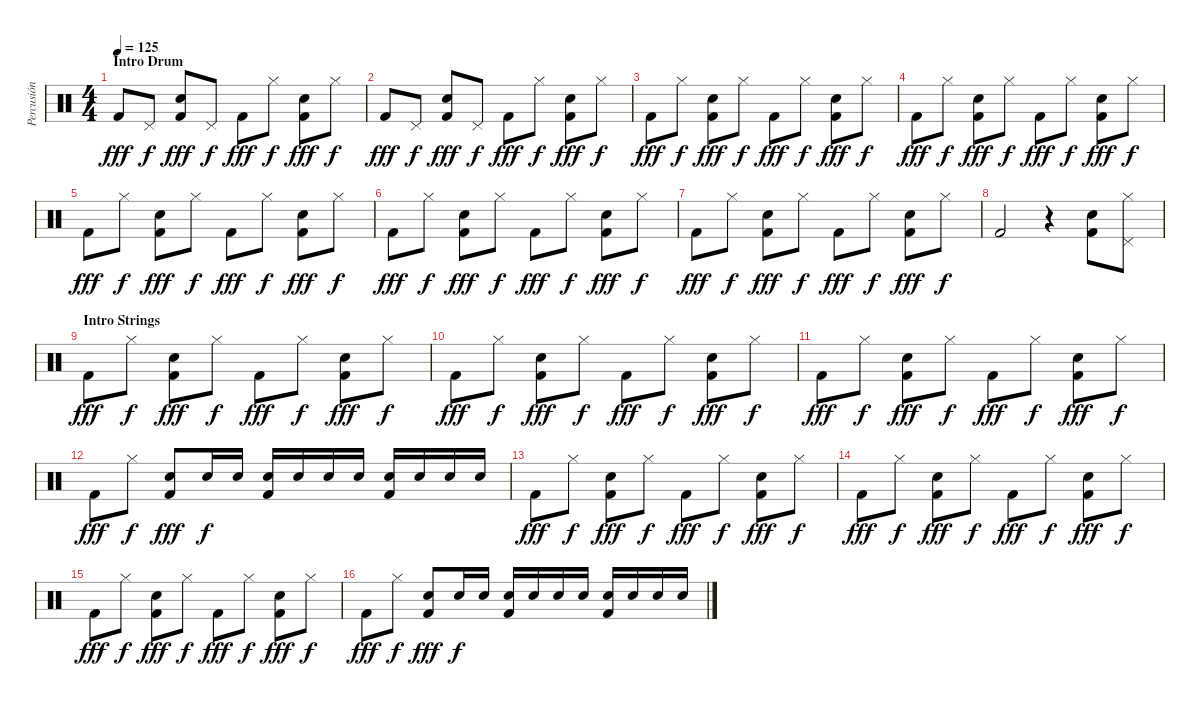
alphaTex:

\track ("Percusión" "Percusión") {instrument percussion}
\staff {score}
\articulation defaults
\ts (4 4)
\section ("" "Intro Drum")
\tempo 125
\clef neutral
\ks c "Kick (hit) 2".8{dy fff} "Pedal Hi-Hat (hit)".8{dy f}
("Electric Snare (hit)" "Kick (hit) 2").8{dy fff} "Pedal Hi-Hat (hit)".8{dy f} "Kick (hit) 2".8{dy fff} "Hi-Hat (closed)".8{dy f} ("Electric Snare (hit)" "Kick (hit) 2").8{dy fff} "Hi-Hat (closed)".8{dy f} |
"Kick (hit) 2".8{dy fff} "Pedal Hi-Hat (hit)".8{dy f} ("Electric Snare (hit)" "Kick (hit) 2").8{dy fff} "Pedal Hi-Hat (hit)".8{dy f} "Kick (hit) 2".8{dy fff} "Hi-Hat (closed)".8{dy f} ("Electric Snare (hit)" "Kick (hit) 2").8{dy fff} "Hi-Hat (closed)".8{dy f} |
"Kick (hit) 2".8{dy fff} "Hi-Hat (closed)".8{dy f} ("Electric Snare (hit)" "Kick (hit) 2").8{dy fff} "Hi-Hat (closed)".8{dy f} "Kick (hit) 2".8{dy fff} "Hi-Hat (closed)".8{dy f} ("Electric Snare (hit)" "Kick (hit) 2").8{dy fff} "Hi-Hat (closed)".8{dy f} |
"Kick (hit) 2".8{dy fff} "Hi-Hat (closed)".8{dy f} ("Electric Snare (hit)" "Kick (hit) 2").8{dy fff} "Hi-Hat (closed)".8{dy f} "Kick (hit) 2".8{dy fff} "Hi-Hat (closed)".8{dy f} ("Electric Snare (hit)" "Kick (hit) 2").8{dy fff} "Hi-Hat (closed)".8{dy f} |
"Kick (hit) 2".8{dy fff} "Hi-Hat (closed)".8{dy f} ("Electric Snare (hit)" "Kick (hit) 2").8{dy fff} "Hi-Hat (closed)".8{dy f} "Kick (hit) 2".8{dy fff} "Hi-Hat (closed)".8{dy f} ("Electric Snare (hit)" "Kick (hit) 2").8{dy fff} "Hi-Hat (closed)".8{dy f} |
"Kick (hit) 2".8{dy fff} "Hi-Hat (closed)".8{dy f} ("Electric Snare (hit)" "Kick (hit) 2").8{dy fff} "Hi-Hat (closed)".8{dy f} "Kick (hit) 2".8{dy fff} "Hi-Hat (closed)".8{dy f} ("Electric Snare (hit)" "Kick (hit) 2").8{dy fff} "Hi-Hat (closed)".8{dy f} |
"Kick (hit) 2".8{dy fff} "Hi-Hat (closed)".8{dy f} ("Electric Snare (hit)" "Kick (hit) 2").8{dy fff} "Hi-Hat (closed)".8{dy f} "Kick (hit) 2".8{dy fff} "Hi-Hat (closed)".8{dy f} ("Electric Snare (hit)" "Kick (hit) 2").8{dy fff} "Hi-Hat (closed)".8{dy f} |
"Kick (hit) 2".2 r.4 ("Electric Snare (hit)" "Kick (hit) 2").8 ("Pedal Hi-Hat (hit)" "Hi-Hat (closed)").8 |
\section ("" "Intro Strings")
"Kick (hit) 2".8{dy fff} "Hi-Hat (closed)".8{dy f} ("Electric Snare (hit)" "Kick (hit) 2").8{dy fff} "Hi-Hat (closed)".8{dy f} "Kick (hit) 2".8{dy fff} "Hi-Hat (closed)".8{dy f} ("Electric Snare (hit)" "Kick (hit) 2").8{dy fff} "Hi-Hat (closed)".8{dy f} |
"Kick (hit) 2".8{dy fff} "Hi-Hat (closed)".8{dy f} ("Electric Snare (hit)" "Kick (hit) 2").8{dy fff} "Hi-Hat (closed)".8{dy f} "Kick (hit) 2".8{dy fff} "Hi-Hat (closed)".8{dy f} ("Electric Snare (hit)" "Kick (hit) 2").8{dy fff} "Hi-Hat (closed)".8{dy f} |
"Kick (hit) 2".8{dy fff} "Hi-Hat (closed)".8{dy f} ("Electric Snare (hit)" "Kick (hit) 2").8{dy fff} "Hi-Hat (closed)".8{dy f} "Kick (hit) 2".8{dy fff} "Hi-Hat (closed)".8{dy f} ("Electric Snare (hit)" "Kick (hit) 2").8{dy fff} "Hi-Hat (closed)".8{dy f} |
"Kick (hit) 2".8{dy fff} "Hi-Hat (closed)".8{dy f} ("Electric Snare (hit)" "Kick (hit) 2").8{dy fff volume 7} "Electric Snare (hit)".16{dy f volume 13} "Electric Snare (hit)".16 ("Electric Snare (hit)" "Kick (hit) 2").16 "Electric Snare (hit)".16 "Electric Snare (hit)".16 "Electric Snare (hit)".16 ("Electric Snare (hit)" "Kick (hit) 2").16 "Electric Snare (hit)".16 "Electric Snare (hit)".16 "Electric Snare (hit)".16 |
"Kick (hit) 2".8{dy fff} "Hi-Hat (closed)".8{dy f} ("Electric Snare (hit)" "Kick (hit) 2").8{dy fff} "Hi-Hat (closed)".8{dy f} "Kick (hit) 2".8{dy fff} "Hi-Hat (closed)".8{dy f} ("Electric Snare (hit)" "Kick (hit) 2").8{dy fff} "Hi-Hat (closed)".8{dy f} |
"Kick (hit) 2".8{dy fff} "Hi-Hat (closed)".8{dy f} ("Electric Snare (hit)" "Kick (hit) 2").8{dy fff} "Hi-Hat (closed)".8{dy f} "Kick (hit) 2".8{dy fff} "Hi-Hat (closed)".8{dy f} ("Electric Snare (hit)" "Kick (hit) 2").8{dy fff} "Hi-Hat (closed)".8{dy f} |
"Kick (hit) 2".8{dy fff} "Hi-Hat (closed)".8{dy f} ("Electric Snare (hit)" "Kick (hit) 2").8{dy fff} "Hi-Hat (closed)".8{dy f} "Kick (hit) 2".8{dy fff} "Hi-Hat (closed)".8{dy f} ("Electric Snare (hit)" "Kick (hit) 2").8{dy fff} "Hi-Hat (closed)".8{dy f} |
"Kick (hit) 2".8{dy fff} "Hi-Hat (closed)".8{dy f} ("Electric Snare (hit)" "Kick (hit) 2").8{dy fff volume 7} "Electric Snare (hit)".16{dy f volume 13} "Electric Snare (hit)".16 ("Electric Snare (hit)" "Kick (hit) 2").16 "Electric Snare (hit)".16 "Electric Snare (hit)".16 "Electric Snare (hit)".16 ("Electric Snare (hit)" "Kick (hit) 2").16 "Electric Snare (hit)".16 "Electric Snare (hit)".16 "Electric Snare (hit)".16
